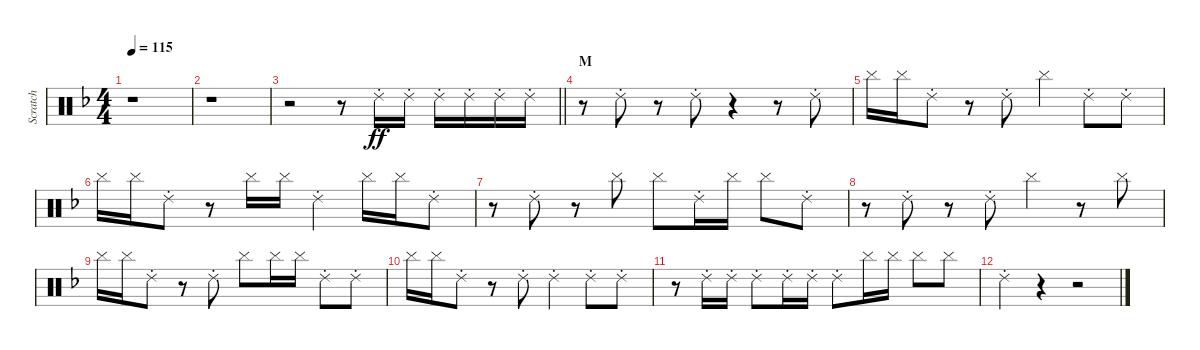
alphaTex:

\track ("Scratch" "Scratch") {instrument percussion}
\staff {score}
\articulation defaults
\ts (4 4)
\tempo 115
\clef neutral
\ks f
r.1{dy ff} |
r.1 |
\barLineRight lightlight
r.2 r.8 "Ride (choke) 2".16 "Ride (choke) 2".16 "Ride (choke) 2".16 "Ride (choke) 2".16 "Ride (choke) 2".16 "Ride (choke) 2".16 |
\section ("" "M")
r.8 "Ride (choke) 2".8 r.8 "Ride (choke) 2".8 r.4 r.8 "Ride (choke) 2".8 |
"Cymbal (hit)".16 "Cymbal (hit)".16 "Ride (choke) 2".8 r.8 "Ride (choke) 2".8 "Cymbal (hit)".4 "Ride (choke) 2".8 "Ride (choke) 2".8 |
"Cymbal (hit)".16 "Cymbal (hit)".16 "Ride (choke) 2".8 r.8 "Cymbal (hit)".16 "Cymbal (hit)".16 "Ride (choke) 2".4 "Cymbal (hit)".16 "Cymbal (hit)".16 "Ride (choke) 2".8 |
r.8 "Ride (choke) 2".8 r.8 "Cymbal (hit)".8 "Cymbal (hit)".8 "Ride (choke) 2".16 "Cymbal (hit)".16 "Cymbal (hit)".8 "Ride (choke) 2".8 |
r.8 "Ride (choke) 2".8 r.8 "Ride (choke) 2".8 "Cymbal (hit)".4 r.8 "Cymbal (hit)".8 |
"Cymbal (hit)".16 "Cymbal (hit)".16 "Ride (choke) 2".8 r.8 "Ride (choke) 2".8 "Cymbal (hit)".8 "Cymbal (hit)".16 "Cymbal (hit)".16 "Ride (choke) 2".8 "Ride (choke) 2".8 |
"Cymbal (hit)".16 "Cymbal (hit)".16 "Ride (choke) 2".8 r.8 "Ride (choke) 2".8 "Ride (choke) 2".4 "Ride (choke) 2".8 "Ride (choke) 2".8 |
r.8 "Ride (choke) 2".16 "Ride (choke) 2".16 "Ride (choke) 2".8 "Ride (choke) 2".16 "Ride (choke) 2".16 "Ride (choke) 2".8 "Cymbal (hit)".16 "Cymbal (hit)".16 "Cymbal (hit)".8 "Cymbal (hit)".8 |
"Ride (choke) 2".4 r.4 r.2
